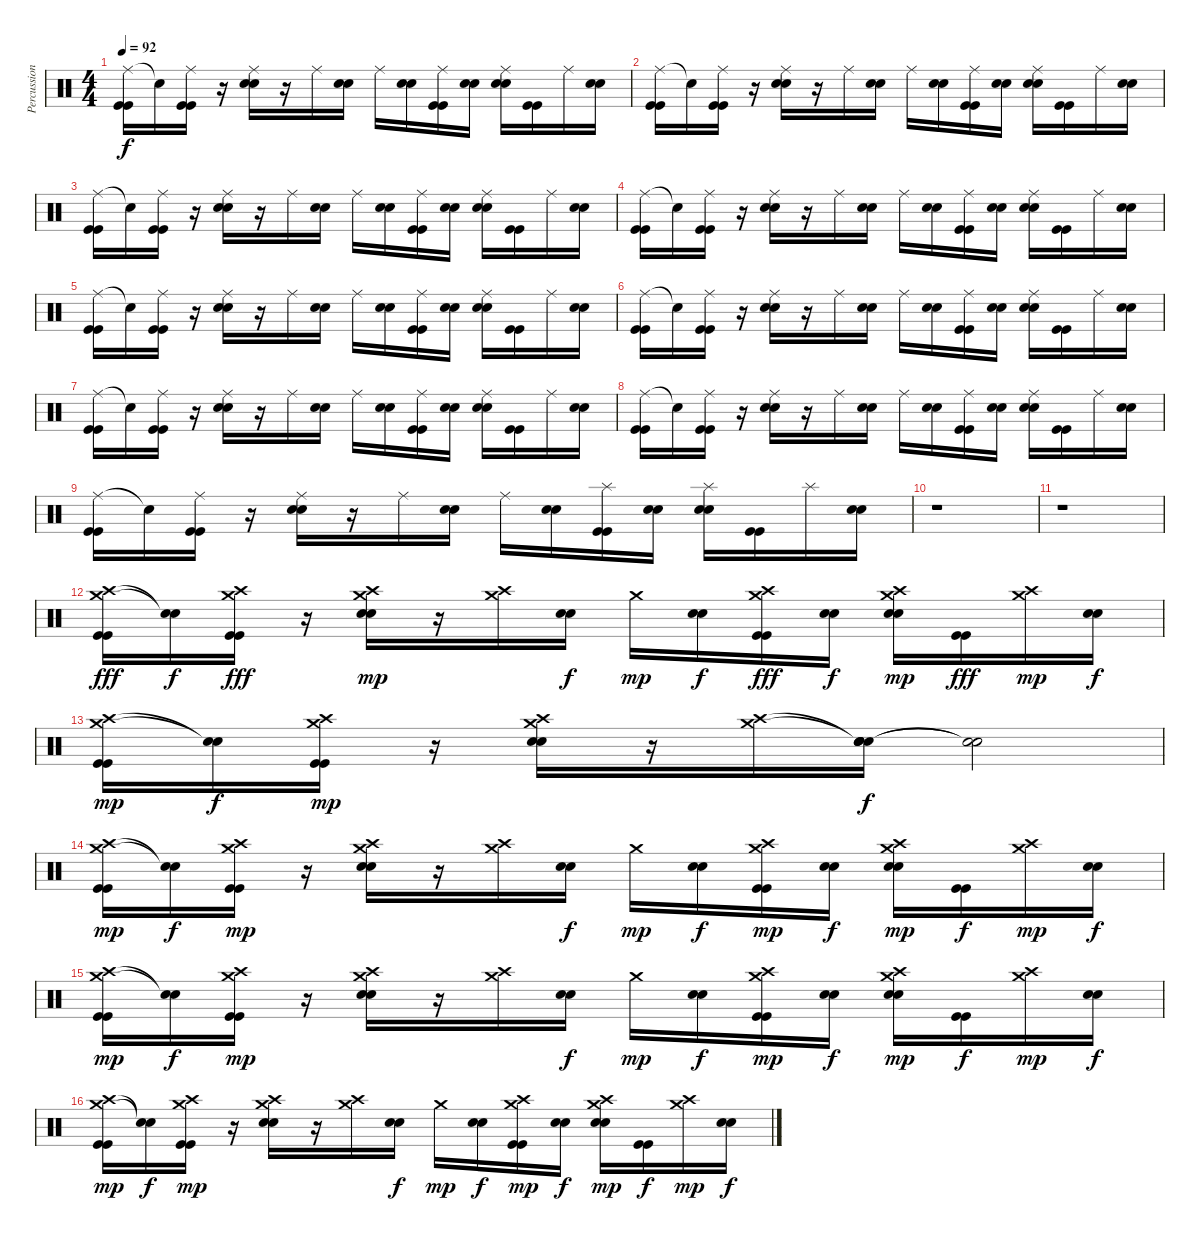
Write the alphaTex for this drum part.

\track ("Percussions" "Percussion") {instrument percussion}
\staff {score}
\articulation defaults
\ts (4 4)
\tempo 92
\clef neutral
\ks c
("Ride (middle)" "Kick (hit)" "Kick (hit)").16{dy f} "Snare (hit)"{t}.16 ("Ride (middle)" "Kick (hit)" "Kick (hit)").16 r.16 ("Ride (middle)" "Electric Snare (hit)" "Electric Snare (hit)").16 r.16 "Ride (middle)".16 ("Electric Snare (hit)" "Electric Snare (hit)").16 "Ride (middle)".16 ("Electric Snare (hit)" "Electric Snare (hit)").16 ("Ride (middle)" "Kick (hit)" "Kick (hit)").16 ("Electric Snare (hit)" "Electric Snare (hit)").16 ("Ride (middle)" "Electric Snare (hit)" "Electric Snare (hit)").16 ("Kick (hit)" "Kick (hit)").16 "Ride (middle)".16 ("Electric Snare (hit)" "Electric Snare (hit)").16 |
("Ride (middle)" "Kick (hit)" "Kick (hit)").16 "Snare (hit)"{t}.16 ("Ride (middle)" "Kick (hit)" "Kick (hit)").16 r.16 ("Ride (middle)" "Electric Snare (hit)" "Electric Snare (hit)").16 r.16 "Ride (middle)".16 ("Electric Snare (hit)" "Electric Snare (hit)").16 "Ride (middle)".16 ("Electric Snare (hit)" "Electric Snare (hit)").16 ("Ride (middle)" "Kick (hit)" "Kick (hit)").16 ("Electric Snare (hit)" "Electric Snare (hit)").16 ("Ride (middle)" "Electric Snare (hit)" "Electric Snare (hit)").16 ("Kick (hit)" "Kick (hit)").16 "Ride (middle)".16 ("Electric Snare (hit)" "Electric Snare (hit)").16 |
("Ride (middle)" "Kick (hit)" "Kick (hit)").16 "Snare (hit)"{t}.16 ("Ride (middle)" "Kick (hit)" "Kick (hit)").16 r.16 ("Ride (middle)" "Electric Snare (hit)" "Electric Snare (hit)").16 r.16 "Ride (middle)".16 ("Electric Snare (hit)" "Electric Snare (hit)").16 "Ride (middle)".16 ("Electric Snare (hit)" "Electric Snare (hit)").16 ("Ride (middle)" "Kick (hit)" "Kick (hit)").16 ("Electric Snare (hit)" "Electric Snare (hit)").16 ("Ride (middle)" "Electric Snare (hit)" "Electric Snare (hit)").16 ("Kick (hit)" "Kick (hit)").16 "Ride (middle)".16 ("Electric Snare (hit)" "Electric Snare (hit)").16 |
("Ride (middle)" "Kick (hit)" "Kick (hit)").16 "Snare (hit)"{t}.16 ("Ride (middle)" "Kick (hit)" "Kick (hit)").16 r.16 ("Ride (middle)" "Electric Snare (hit)" "Electric Snare (hit)").16 r.16 "Ride (middle)".16 ("Electric Snare (hit)" "Electric Snare (hit)").16 "Ride (middle)".16 ("Electric Snare (hit)" "Electric Snare (hit)").16 ("Ride (middle)" "Kick (hit)" "Kick (hit)").16 ("Electric Snare (hit)" "Electric Snare (hit)").16 ("Ride (middle)" "Electric Snare (hit)" "Electric Snare (hit)").16 ("Kick (hit)" "Kick (hit)").16 "Ride (middle)".16 ("Electric Snare (hit)" "Electric Snare (hit)").16 |
("Ride (middle)" "Kick (hit)" "Kick (hit)").16 "Snare (hit)"{t}.16 ("Ride (middle)" "Kick (hit)" "Kick (hit)").16 r.16 ("Ride (middle)" "Electric Snare (hit)" "Electric Snare (hit)").16 r.16 "Ride (middle)".16 ("Electric Snare (hit)" "Electric Snare (hit)").16 "Ride (middle)".16 ("Electric Snare (hit)" "Electric Snare (hit)").16 ("Ride (middle)" "Kick (hit)" "Kick (hit)").16 ("Electric Snare (hit)" "Electric Snare (hit)").16 ("Ride (middle)" "Electric Snare (hit)" "Electric Snare (hit)").16 ("Kick (hit)" "Kick (hit)").16 "Ride (middle)".16 ("Electric Snare (hit)" "Electric Snare (hit)").16 |
("Ride (middle)" "Kick (hit)" "Kick (hit)").16 "Snare (hit)"{t}.16 ("Ride (middle)" "Kick (hit)" "Kick (hit)").16 r.16 ("Ride (middle)" "Electric Snare (hit)" "Electric Snare (hit)").16 r.16 "Ride (middle)".16 ("Electric Snare (hit)" "Electric Snare (hit)").16 "Ride (middle)".16 ("Electric Snare (hit)" "Electric Snare (hit)").16 ("Ride (middle)" "Kick (hit)" "Kick (hit)").16 ("Electric Snare (hit)" "Electric Snare (hit)").16 ("Ride (middle)" "Electric Snare (hit)" "Electric Snare (hit)").16 ("Kick (hit)" "Kick (hit)").16 "Ride (middle)".16 ("Electric Snare (hit)" "Electric Snare (hit)").16 |
("Ride (middle)" "Kick (hit)" "Kick (hit)").16 "Snare (hit)"{t}.16 ("Ride (middle)" "Kick (hit)" "Kick (hit)").16 r.16 ("Ride (middle)" "Electric Snare (hit)" "Electric Snare (hit)").16 r.16 "Ride (middle)".16 ("Electric Snare (hit)" "Electric Snare (hit)").16 "Ride (middle)".16 ("Electric Snare (hit)" "Electric Snare (hit)").16 ("Ride (middle)" "Kick (hit)" "Kick (hit)").16 ("Electric Snare (hit)" "Electric Snare (hit)").16 ("Ride (middle)" "Electric Snare (hit)" "Electric Snare (hit)").16 ("Kick (hit)" "Kick (hit)").16 "Ride (middle)".16 ("Electric Snare (hit)" "Electric Snare (hit)").16 |
("Ride (middle)" "Kick (hit)" "Kick (hit)").16 "Snare (hit)"{t}.16 ("Ride (middle)" "Kick (hit)" "Kick (hit)").16 r.16 ("Ride (middle)" "Electric Snare (hit)" "Electric Snare (hit)").16 r.16 "Ride (middle)".16 ("Electric Snare (hit)" "Electric Snare (hit)").16 "Ride (middle)".16 ("Electric Snare (hit)" "Electric Snare (hit)").16 ("Ride (middle)" "Kick (hit)" "Kick (hit)").16 ("Electric Snare (hit)" "Electric Snare (hit)").16 ("Ride (middle)" "Electric Snare (hit)" "Electric Snare (hit)").16 ("Kick (hit)" "Kick (hit)").16 "Ride (middle)".16 ("Electric Snare (hit)" "Electric Snare (hit)").16 |
("Ride (middle)" "Kick (hit)" "Kick (hit)").16 "Snare (hit)"{t}.16 ("Ride (middle)" "Kick (hit)" "Kick (hit)").16 r.16 ("Ride (middle)" "Electric Snare (hit)" "Electric Snare (hit)").16 r.16 "Ride (middle)".16 ("Electric Snare (hit)" "Electric Snare (hit)").16 "Ride (middle)".16 ("Electric Snare (hit)" "Electric Snare (hit)").16 ("Splash (hit)" "Kick (hit)" "Kick (hit)").16 ("Electric Snare (hit)" "Electric Snare (hit)").16 ("Splash (hit)" "Electric Snare (hit)" "Electric Snare (hit)").16 ("Kick (hit)" "Kick (hit)").16 "Splash (hit)".16 ("Electric Snare (hit)" "Electric Snare (hit)").16 |
r.1 |
r.1 |
("Crash medium (hit)" "Crash high (hit)" "Kick (hit)" "Kick (hit)").16{dy fff volume 16} ("Snare (hit)"{t} "Snare (hit)"{t}).16{dy f} ("Crash medium (hit)" "Crash high (hit)" "Kick (hit)" "Kick (hit)").16{dy fff} r.16 ("Crash medium (hit)" "Crash high (hit)" "Electric Snare (hit)" "Electric Snare (hit)").16{dy mp} r.16 ("Crash medium (hit)" "Crash high (hit)").16 ("Electric Snare (hit)" "Electric Snare (hit)").16{dy f} "Crash medium (hit)".16{dy mp} ("Electric Snare (hit)" "Electric Snare (hit)").16{dy f} ("Crash medium (hit)" "Crash high (hit)" "Kick (hit)" "Kick (hit)").16{dy fff} ("Electric Snare (hit)" "Electric Snare (hit)").16{dy f} ("Crash medium (hit)" "Crash high (hit)" "Electric Snare (hit)" "Electric Snare (hit)").16{dy mp} ("Kick (hit)" "Kick (hit)").16{dy fff} ("Crash medium (hit)" "Crash high (hit)").16{dy mp} ("Electric Snare (hit)" "Electric Snare (hit)").16{dy f} |
("Crash medium (hit)" "Crash high (hit)" "Kick (hit)" "Kick (hit)").16{dy mp} ("Snare (hit)"{t} "Snare (hit)"{t}).16{dy f} ("Crash medium (hit)" "Crash high (hit)" "Kick (hit)" "Kick (hit)").16{dy mp} r.16 ("Crash medium (hit)" "Crash high (hit)" "Electric Snare (hit)" "Electric Snare (hit)").16 r.16 ("Crash medium (hit)" "Crash high (hit)").16 ("Snare (hit)"{t} "Snare (hit)"{t} "Electric Snare (hit)" "Electric Snare (hit)").16{dy f} ("Snare (hit)"{t} "Snare (hit)"{t}).2 |
("Crash medium (hit)" "Crash high (hit)" "Kick (hit)" "Kick (hit)").16{dy mp} ("Snare (hit)"{t} "Snare (hit)"{t}).16{dy f} ("Crash medium (hit)" "Crash high (hit)" "Kick (hit)" "Kick (hit)").16{dy mp} r.16 ("Crash medium (hit)" "Crash high (hit)" "Electric Snare (hit)" "Electric Snare (hit)").16 r.16 ("Crash medium (hit)" "Crash high (hit)").16 ("Electric Snare (hit)" "Electric Snare (hit)").16{dy f} "Crash medium (hit)".16{dy mp} ("Electric Snare (hit)" "Electric Snare (hit)").16{dy f} ("Crash medium (hit)" "Crash high (hit)" "Kick (hit)" "Kick (hit)").16{dy mp} ("Electric Snare (hit)" "Electric Snare (hit)").16{dy f} ("Crash medium (hit)" "Crash high (hit)" "Electric Snare (hit)" "Electric Snare (hit)").16{dy mp} ("Kick (hit)" "Kick (hit)").16{dy f} ("Crash medium (hit)" "Crash high (hit)").16{dy mp} ("Electric Snare (hit)" "Electric Snare (hit)").16{dy f} |
("Crash medium (hit)" "Crash high (hit)" "Kick (hit)" "Kick (hit)").16{dy mp} ("Snare (hit)"{t} "Snare (hit)"{t}).16{dy f} ("Crash medium (hit)" "Crash high (hit)" "Kick (hit)" "Kick (hit)").16{dy mp} r.16 ("Crash medium (hit)" "Crash high (hit)" "Electric Snare (hit)" "Electric Snare (hit)").16 r.16 ("Crash medium (hit)" "Crash high (hit)").16 ("Electric Snare (hit)" "Electric Snare (hit)").16{dy f} "Crash medium (hit)".16{dy mp} ("Electric Snare (hit)" "Electric Snare (hit)").16{dy f} ("Crash medium (hit)" "Crash high (hit)" "Kick (hit)" "Kick (hit)").16{dy mp} ("Electric Snare (hit)" "Electric Snare (hit)").16{dy f} ("Crash medium (hit)" "Crash high (hit)" "Electric Snare (hit)" "Electric Snare (hit)").16{dy mp} ("Kick (hit)" "Kick (hit)").16{dy f} ("Crash medium (hit)" "Crash high (hit)").16{dy mp} ("Electric Snare (hit)" "Electric Snare (hit)").16{dy f} |
("Crash medium (hit)" "Crash high (hit)" "Kick (hit)" "Kick (hit)").16{dy mp} ("Snare (hit)"{t} "Snare (hit)"{t}).16{dy f} ("Crash medium (hit)" "Crash high (hit)" "Kick (hit)" "Kick (hit)").16{dy mp} r.16 ("Crash medium (hit)" "Crash high (hit)" "Electric Snare (hit)" "Electric Snare (hit)").16 r.16 ("Crash medium (hit)" "Crash high (hit)").16 ("Electric Snare (hit)" "Electric Snare (hit)").16{dy f} "Crash medium (hit)".16{dy mp} ("Electric Snare (hit)" "Electric Snare (hit)").16{dy f} ("Crash medium (hit)" "Crash high (hit)" "Kick (hit)" "Kick (hit)").16{dy mp} ("Electric Snare (hit)" "Electric Snare (hit)").16{dy f} ("Crash medium (hit)" "Crash high (hit)" "Electric Snare (hit)" "Electric Snare (hit)").16{dy mp} ("Kick (hit)" "Kick (hit)").16{dy f} ("Crash medium (hit)" "Crash high (hit)").16{dy mp} ("Electric Snare (hit)" "Electric Snare (hit)").16{dy f}
